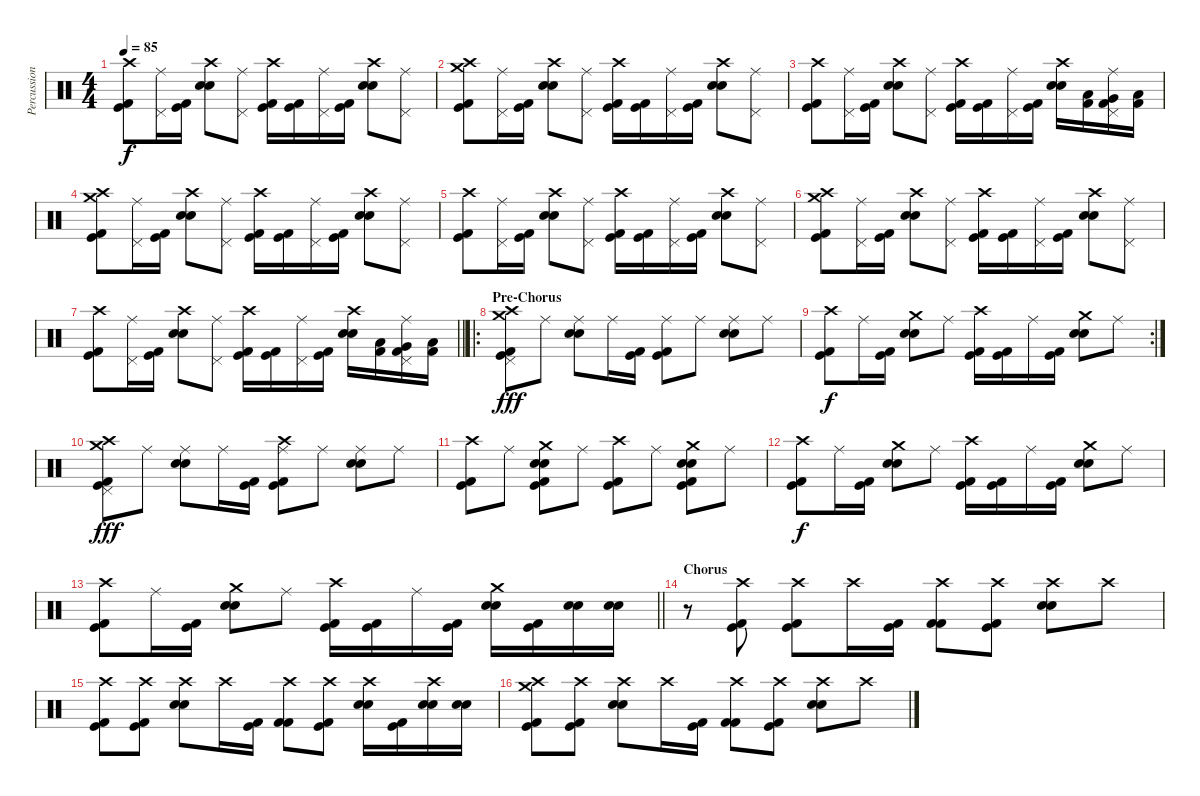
\track ("Percussion" "Percussion") {instrument percussion}
\staff {score}
\articulation defaults
\ts (4 4)
\tempo 85
\clef neutral
\ks c
("Kick (hit) 2" "Kick (hit)" "Crash high (hit)").8{dy f} ("Pedal Hi-Hat (hit)" "Ride (middle)").16 ("Kick (hit) 2" "Kick (hit)").16 ("Electric Snare (hit)" "Snare (hit) 2" "Crash high (hit)").8 ("Pedal Hi-Hat (hit)" "Ride (middle)").8 ("Kick (hit) 2" "Kick (hit)" "Crash high (hit)").16 ("Kick (hit) 2" "Kick (hit)").16 ("Pedal Hi-Hat (hit)" "Ride (middle)").16 ("Kick (hit) 2" "Kick (hit)").16 ("Electric Snare (hit)" "Snare (hit) 2" "Crash high (hit)").8 ("Pedal Hi-Hat (hit)" "Ride (middle)").8 |
("Kick (hit) 2" "Kick (hit)" "Crash high (hit)" "Crash medium (hit)").8 ("Pedal Hi-Hat (hit)" "Ride (middle)").16 ("Kick (hit) 2" "Kick (hit)").16 ("Electric Snare (hit)" "Snare (hit) 2" "Crash high (hit)").8 ("Pedal Hi-Hat (hit)" "Ride (middle)").8 ("Kick (hit) 2" "Kick (hit)" "Crash high (hit)").16 ("Kick (hit) 2" "Kick (hit)").16 ("Pedal Hi-Hat (hit)" "Ride (middle)").16 ("Kick (hit) 2" "Kick (hit)").16 ("Electric Snare (hit)" "Snare (hit) 2" "Crash high (hit)").8 ("Pedal Hi-Hat (hit)" "Ride (middle)").8 |
("Kick (hit) 2" "Kick (hit)" "Crash high (hit)").8 ("Pedal Hi-Hat (hit)" "Ride (middle)").16 ("Kick (hit) 2" "Kick (hit)").16 ("Electric Snare (hit)" "Snare (hit) 2" "Crash high (hit)").8 ("Pedal Hi-Hat (hit)" "Ride (middle)").8 ("Kick (hit) 2" "Kick (hit)" "Crash high (hit)").16 ("Kick (hit) 2" "Kick (hit)").16 ("Pedal Hi-Hat (hit)" "Ride (middle)").16 ("Kick (hit) 2" "Kick (hit)").16 ("Electric Snare (hit)" "Snare (hit) 2" "Crash high (hit)").16 ("Kick (hit) 2" "Low Tom (hit)").16 ("Kick (hit) 2" "Very Low Tom (hit)" "Pedal Hi-Hat (hit)" "Ride (middle)").16 ("Kick (hit) 2" "Low Floor Tom (hit)").16 |
("Kick (hit) 2" "Kick (hit)" "Crash high (hit)" "Crash medium (hit)").8 ("Pedal Hi-Hat (hit)" "Ride (middle)").16 ("Kick (hit) 2" "Kick (hit)").16 ("Electric Snare (hit)" "Snare (hit) 2" "Crash high (hit)").8 ("Pedal Hi-Hat (hit)" "Ride (middle)").8 ("Kick (hit) 2" "Kick (hit)" "Crash high (hit)").16 ("Kick (hit) 2" "Kick (hit)").16 ("Pedal Hi-Hat (hit)" "Ride (middle)").16 ("Kick (hit) 2" "Kick (hit)").16 ("Electric Snare (hit)" "Snare (hit) 2" "Crash high (hit)").8 ("Pedal Hi-Hat (hit)" "Ride (middle)").8 |
("Kick (hit) 2" "Kick (hit)" "Crash high (hit)").8 ("Pedal Hi-Hat (hit)" "Ride (middle)").16 ("Kick (hit) 2" "Kick (hit)").16 ("Electric Snare (hit)" "Snare (hit) 2" "Crash high (hit)").8 ("Pedal Hi-Hat (hit)" "Ride (middle)").8 ("Kick (hit) 2" "Kick (hit)" "Crash high (hit)").16 ("Kick (hit) 2" "Kick (hit)").16 ("Pedal Hi-Hat (hit)" "Ride (middle)").16 ("Kick (hit) 2" "Kick (hit)").16 ("Electric Snare (hit)" "Snare (hit) 2" "Crash high (hit)").8 ("Pedal Hi-Hat (hit)" "Ride (middle)").8 |
("Kick (hit) 2" "Kick (hit)" "Crash high (hit)" "Crash medium (hit)").8 ("Pedal Hi-Hat (hit)" "Ride (middle)").16 ("Kick (hit) 2" "Kick (hit)").16 ("Electric Snare (hit)" "Snare (hit) 2" "Crash high (hit)").8 ("Pedal Hi-Hat (hit)" "Ride (middle)").8 ("Kick (hit) 2" "Kick (hit)" "Crash high (hit)").16 ("Kick (hit) 2" "Kick (hit)").16 ("Pedal Hi-Hat (hit)" "Ride (middle)").16 ("Kick (hit) 2" "Kick (hit)").16 ("Electric Snare (hit)" "Snare (hit) 2" "Crash high (hit)").8 ("Pedal Hi-Hat (hit)" "Ride (middle)").8 |
\barLineRight lightlight
("Kick (hit) 2" "Kick (hit)" "Crash high (hit)").8 ("Pedal Hi-Hat (hit)" "Ride (middle)").16 ("Kick (hit) 2" "Kick (hit)").16 ("Electric Snare (hit)" "Snare (hit) 2" "Crash high (hit)").8 ("Pedal Hi-Hat (hit)" "Ride (middle)").8 ("Kick (hit) 2" "Kick (hit)" "Crash high (hit)").16 ("Kick (hit) 2" "Kick (hit)").16 ("Pedal Hi-Hat (hit)" "Ride (middle)").16 ("Kick (hit) 2" "Kick (hit)").16 ("Electric Snare (hit)" "Snare (hit) 2" "Crash high (hit)").16 ("Kick (hit) 2" "Low Tom (hit)").16 ("Kick (hit) 2" "Very Low Tom (hit)" "Pedal Hi-Hat (hit)" "Ride (middle)").16 ("Kick (hit) 2" "Low Floor Tom (hit)").16 |
\ro
\section ("" "Pre-Chorus")
("Kick (hit) 2" "Kick (hit)" "Pedal Hi-Hat (hit)" "Crash medium (hit)" "Crash high (hit)").8{dy fff} "Ride (middle)".8 ("Electric Snare (hit)" "Snare (hit) 2" "Ride (middle)").8 "Ride (middle)".16 ("Kick (hit) 2" "Kick (hit)").16 ("Kick (hit) 2" "Kick (hit)" "Ride (middle)").8 "Ride (middle)".8 ("Electric Snare (hit)" "Snare (hit) 2" "Ride (middle)").8 "Ride (middle)".8 |
\rc 2
("Kick (hit) 2" "Kick (hit)" "Crash high (hit)").8{dy f} "Ride (middle)".16 ("Kick (hit) 2" "Kick (hit)").16 ("Electric Snare (hit)" "Snare (hit) 2" "Crash medium (hit)").8 "Ride (middle)".8 ("Kick (hit) 2" "Kick (hit)" "Crash high (hit)").16 ("Kick (hit) 2" "Kick (hit)").16 "Ride (middle)".16 ("Kick (hit) 2" "Kick (hit)").16 ("Electric Snare (hit)" "Snare (hit) 2" "Crash medium (hit)").8 "Ride (middle)".8 |
("Kick (hit) 2" "Kick (hit)" "Pedal Hi-Hat (hit)" "Crash medium (hit)" "Crash high (hit)").8{dy fff} "Ride (middle)".8 ("Electric Snare (hit)" "Snare (hit) 2" "Ride (middle)").8 "Ride (middle)".16 ("Kick (hit) 2" "Kick (hit)").16 ("Kick (hit) 2" "Kick (hit)" "Ride (middle)" "Crash high (hit)").8 "Ride (middle)".8 ("Electric Snare (hit)" "Snare (hit) 2" "Ride (middle)").8 "Ride (middle)".8 |
("Kick (hit) 2" "Kick (hit)" "Crash high (hit)").8 "Ride (middle)".8 ("Kick (hit) 2" "Kick (hit)" "Snare (hit) 2" "Electric Snare (hit)" "Crash medium (hit)").8 "Ride (middle)".8 ("Kick (hit) 2" "Kick (hit)" "Crash high (hit)").8 "Ride (middle)".8 ("Kick (hit) 2" "Kick (hit)" "Electric Snare (hit)" "Snare (hit) 2" "Crash medium (hit)").8 "Ride (middle)".8 |
("Kick (hit) 2" "Kick (hit)" "Crash high (hit)").8{dy f} "Ride (middle)".16 ("Kick (hit) 2" "Kick (hit)").16 ("Electric Snare (hit)" "Snare (hit) 2" "Crash medium (hit)").8 "Ride (middle)".8 ("Kick (hit) 2" "Kick (hit)" "Crash high (hit)").16 ("Kick (hit) 2" "Kick (hit)").16 "Ride (middle)".16 ("Kick (hit) 2" "Kick (hit)").16 ("Electric Snare (hit)" "Snare (hit) 2" "Crash medium (hit)").8 "Ride (middle)".8 |
\barLineRight lightlight
("Kick (hit) 2" "Kick (hit)" "Crash high (hit)").8 "Ride (middle)".16 ("Kick (hit) 2" "Kick (hit)").16 ("Electric Snare (hit)" "Snare (hit) 2" "Crash medium (hit)").8 "Ride (middle)".8 ("Kick (hit) 2" "Kick (hit)" "Crash high (hit)").16 ("Kick (hit) 2" "Kick (hit)").16 "Ride (middle)".16 ("Kick (hit) 2" "Kick (hit)").16 ("Electric Snare (hit)" "Snare (hit) 2" "Crash medium (hit)").16 ("Kick (hit) 2" "Kick (hit)").16 ("Electric Snare (hit)" "Snare (hit) 2").16 ("Electric Snare (hit)" "Snare (hit) 2").16 |
\section ("" "Chorus")
r.8 ("Kick (hit) 2" "Kick (hit)" "Crash high (hit)").8 ("Kick (hit) 2" "Kick (hit)" "Crash high (hit)").8 "Crash high (hit)".16 ("Kick (hit) 2" "Kick (hit)").16 ("Kick (hit) 2" "Kick (hit) 2" "Crash high (hit)").8 ("Kick (hit) 2" "Kick (hit)" "Crash high (hit)").8 ("Electric Snare (hit)" "Snare (hit) 2" "Crash high (hit)").8 "Crash high (hit)".8 |
("Kick (hit) 2" "Kick (hit)" "Crash high (hit)").8 ("Kick (hit) 2" "Kick (hit)" "Crash high (hit)").8 ("Electric Snare (hit)" "Snare (hit) 2" "Crash high (hit)").8 "Crash high (hit)".16 ("Kick (hit) 2" "Kick (hit)").16 ("Kick (hit) 2" "Kick (hit) 2" "Crash high (hit)").8 ("Kick (hit) 2" "Kick (hit)" "Crash high (hit)").8 ("Electric Snare (hit)" "Snare (hit) 2" "Crash high (hit)").16 ("Kick (hit) 2" "Kick (hit)").16 ("Electric Snare (hit)" "Snare (hit) 2" "Crash high (hit)").16 ("Electric Snare (hit)" "Snare (hit) 2").16 |
("Kick (hit) 2" "Kick (hit)" "Crash high (hit)" "Crash medium (hit)").8 ("Kick (hit) 2" "Kick (hit)" "Crash high (hit)").8 ("Electric Snare (hit)" "Snare (hit) 2" "Crash high (hit)").8 "Crash high (hit)".16 ("Kick (hit) 2" "Kick (hit)").16 ("Kick (hit) 2" "Kick (hit) 2" "Crash high (hit)").8 ("Kick (hit) 2" "Kick (hit)" "Crash high (hit)").8 ("Electric Snare (hit)" "Snare (hit) 2" "Crash high (hit)").8 "Crash high (hit)".8
